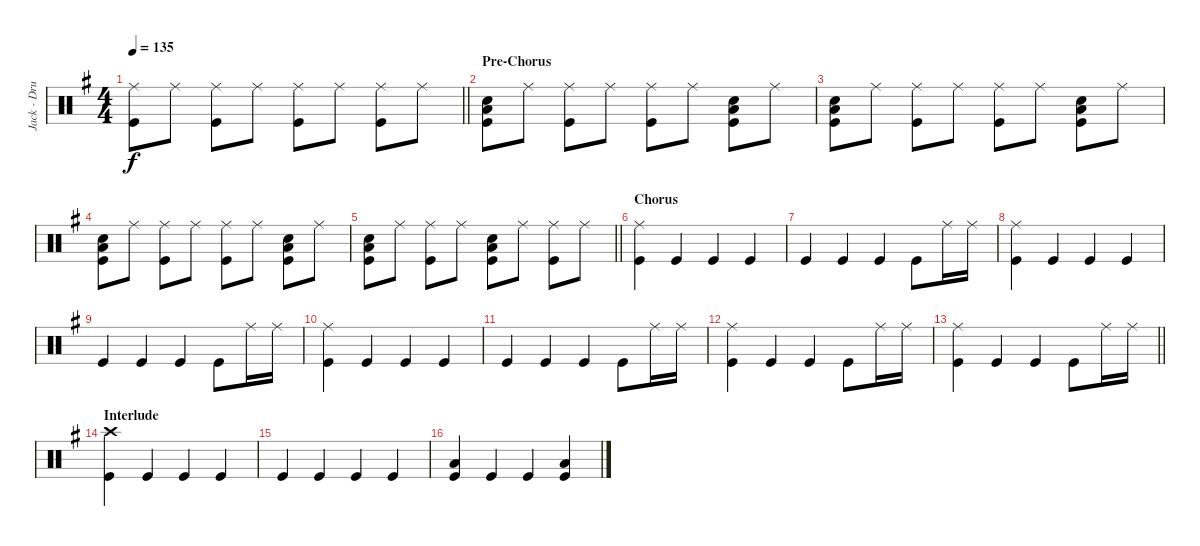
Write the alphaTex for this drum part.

\track ("Jack - Drums" "Jack - Dru") {instrument percussion}
\staff {score}
\articulation defaults
\ts (4 4)
\tempo 135
\clef neutral
\barLineRight lightlight
\ks g
("Ride (middle)" "Kick (hit)").8{dy f} "Ride (middle)".8 ("Ride (middle)" "Kick (hit)").8 "Ride (middle)".8 ("Ride (middle)" "Kick (hit)").8 "Ride (middle)".8 ("Ride (middle)" "Kick (hit)").8 "Ride (middle)".8 |
\section ("" "Pre-Chorus")
("Snare (hit) 2" "Low Tom (hit)" "Kick (hit)").8 "Ride (middle)".8 ("Ride (middle)" "Kick (hit)").8 "Ride (middle)".8 ("Ride (middle)" "Kick (hit)").8 "Ride (middle)".8 ("Snare (hit) 2" "Low Tom (hit)" "Kick (hit)").8 "Ride (middle)".8 |
("Snare (hit) 2" "Low Tom (hit)" "Kick (hit)").8 "Ride (middle)".8 ("Ride (middle)" "Kick (hit)").8 "Ride (middle)".8 ("Ride (middle)" "Kick (hit)").8 "Ride (middle)".8 ("Snare (hit) 2" "Low Tom (hit)" "Kick (hit)").8 "Ride (middle)".8 |
("Snare (hit) 2" "Low Tom (hit)" "Kick (hit)").8 "Ride (middle)".8 ("Ride (middle)" "Kick (hit)").8 "Ride (middle)".8 ("Ride (middle)" "Kick (hit)").8 "Ride (middle)".8 ("Snare (hit) 2" "Low Tom (hit)" "Kick (hit)").8 "Ride (middle)".8 |
\barLineRight lightlight
("Snare (hit) 2" "Low Tom (hit)" "Kick (hit)").8 "Ride (middle)".8 ("Ride (middle)" "Kick (hit)").8 "Ride (middle)".8 ("Snare (hit) 2" "Low Tom (hit)" "Kick (hit)").8 "Ride (middle)".8 ("Ride (middle)" "Kick (hit)").8 "Ride (middle)".8 |
\section ("" "Chorus")
("Ride (middle)" "Kick (hit)").4 "Kick (hit)".4 "Kick (hit)".4 "Kick (hit)".4 |
"Kick (hit)".4 "Kick (hit)".4 "Kick (hit)".4 "Kick (hit)".8 "Ride (middle)".16 "Ride (middle)".16 |
("Ride (middle)" "Kick (hit)").4 "Kick (hit)".4 "Kick (hit)".4 "Kick (hit)".4 |
"Kick (hit)".4 "Kick (hit)".4 "Kick (hit)".4 "Kick (hit)".8 "Ride (middle)".16 "Ride (middle)".16 |
("Ride (middle)" "Kick (hit)").4 "Kick (hit)".4 "Kick (hit)".4 "Kick (hit)".4 |
"Kick (hit)".4 "Kick (hit)".4 "Kick (hit)".4 "Kick (hit)".8 "Ride (middle)".16 "Ride (middle)".16 |
("Ride (middle)" "Kick (hit)").4 "Kick (hit)".4 "Kick (hit)".4 "Kick (hit)".8 "Ride (middle)".16 "Ride (middle)".16 |
\barLineRight lightlight
("Ride (middle)" "Kick (hit)").4 "Kick (hit)".4 "Kick (hit)".4 "Kick (hit)".8 "Ride (middle)".16 "Ride (middle)".16 |
\section ("" "Interlude")
("Crash high (hit)" "Kick (hit)").4 "Kick (hit)".4 "Kick (hit)".4 "Kick (hit)".4 |
"Kick (hit)".4 "Kick (hit)".4 "Kick (hit)".4 "Kick (hit)".4 |
("Low Tom (hit)" "Kick (hit)").4 "Kick (hit)".4 "Kick (hit)".4 ("Low Tom (hit)" "Kick (hit)").4
